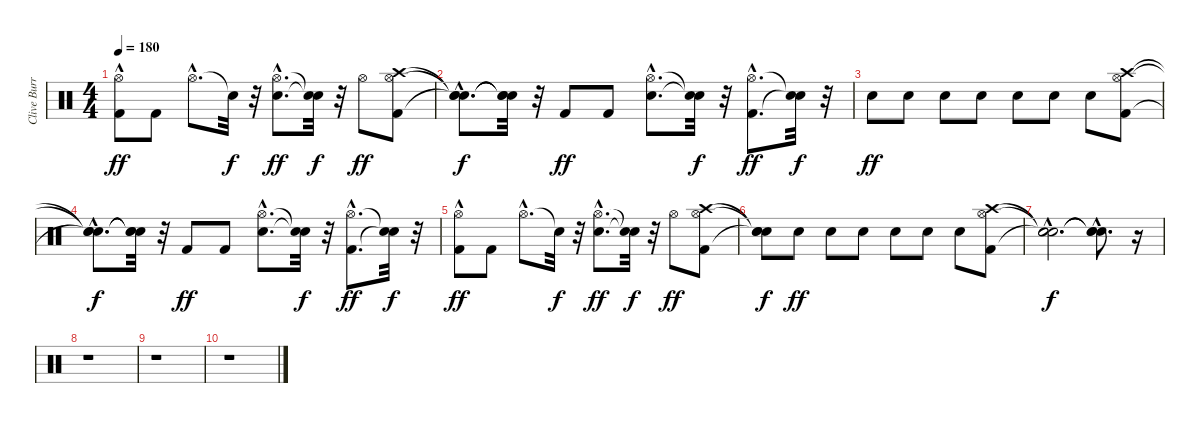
\track ("Clive Burr" "Clive Burr") {instrument percussion}
\staff {score}
\articulation defaults
\ts (4 4)
\tempo 180
\clef neutral
\ks c
("Kick (hit) 2" "Hi-Hat (open)"{hac}).8{dy ff} "Kick (hit) 2".8 "Hi-Hat (open)"{hac}.8{d} "Snare (hit)"{t}.32{dy f} r.32 ("Snare (hit) 2"{hac} "Hi-Hat (open)"{hac}).8{d dy ff} ("Snare (hit)"{t} "Snare (hit)"{t}).32{dy f} r.32 "Hi-Hat (open)".8{dy ff} ("Kick (hit) 2" "Hi-Hat (open)" "Crash high (hit)").8 |
("Snare (hit)"{hac t} "Snare (hit)"{hac t} "Snare (hit)"{hac t}).8{d dy f} ("Snare (hit)"{t} "Snare (hit)"{t} "Snare (hit)"{t}).32 r.32 "Kick (hit) 2".8{dy ff} "Kick (hit) 2".8 ("Snare (hit) 2"{hac} "Hi-Hat (open)"{hac}).8{d} ("Snare (hit)"{t} "Snare (hit)"{t}).32{dy f} r.32 ("Kick (hit) 2"{hac} "Hi-Hat (open)"{hac}).8{d dy ff} ("Snare (hit)"{t} "Snare (hit)"{t}).32{dy f} r.32 |
"Snare (hit) 2".8{dy ff} "Snare (hit) 2".8 "Snare (hit) 2".8 "Snare (hit) 2".8 "Snare (hit) 2".8 "Snare (hit) 2".8 "Snare (hit) 2".8 ("Kick (hit) 2" "Hi-Hat (open)" "Crash high (hit)").8 |
("Snare (hit)"{hac t} "Snare (hit)"{hac t} "Snare (hit)"{hac t}).8{d dy f} ("Snare (hit)"{t} "Snare (hit)"{t} "Snare (hit)"{t}).32 r.32 "Kick (hit) 2".8{dy ff} "Kick (hit) 2".8 ("Snare (hit) 2"{hac} "Hi-Hat (open)"{hac}).8{d} ("Snare (hit)"{t} "Snare (hit)"{t}).32{dy f} r.32 ("Kick (hit) 2"{hac} "Hi-Hat (open)"{hac}).8{d dy ff} ("Snare (hit)"{t} "Snare (hit)"{t}).32{dy f} r.32 |
("Kick (hit) 2" "Hi-Hat (open)"{hac}).8{dy ff} "Kick (hit) 2".8 "Hi-Hat (open)"{hac}.8{d} "Snare (hit)"{t}.32{dy f} r.32 ("Snare (hit) 2"{hac} "Hi-Hat (open)"{hac}).8{d dy ff} ("Snare (hit)"{t} "Snare (hit)"{t}).32{dy f} r.32 "Hi-Hat (open)".8{dy ff} ("Kick (hit) 2" "Hi-Hat (open)" "Crash high (hit)").8 |
("Snare (hit)"{t} "Snare (hit)"{t} "Snare (hit)"{t}).8{dy f} "Snare (hit) 2".8{dy ff} "Snare (hit) 2".8 "Snare (hit) 2".8 "Snare (hit) 2".8 "Snare (hit) 2".8 "Snare (hit) 2".8 ("Kick (hit) 2" "Hi-Hat (open)" "Crash high (hit)").8 |
("Snare (hit)"{hac t} "Snare (hit)"{hac t} "Snare (hit)"{hac t}).2{d dy f} ("Snare (hit)"{hac t} "Snare (hit)"{hac t} "Snare (hit)"{hac t}).8{d} r.16 |
r.1 |
r.1 |
r.1
